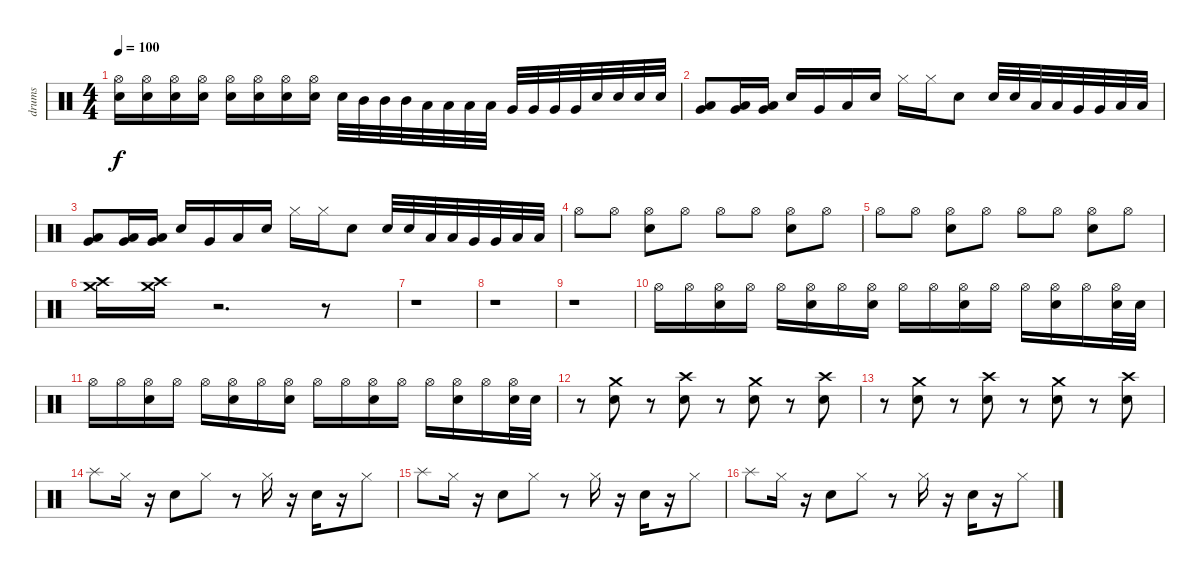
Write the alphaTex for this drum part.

\track ("drums" "drums") {instrument percussion}
\staff {score}
\articulation defaults
\ts (4 4)
\tempo 100
\clef neutral
\ks c
("Snare (hit) 2" "Hi-Hat (open)").16{dy f} ("Snare (hit) 2" "Hi-Hat (open)").16 ("Snare (hit) 2" "Hi-Hat (open)").16 ("Snare (hit) 2" "Hi-Hat (open)").16 ("Snare (hit) 2" "Hi-Hat (open)").16 ("Snare (hit) 2" "Hi-Hat (open)").16 ("Snare (hit) 2" "Hi-Hat (open)").16 ("Snare (hit) 2" "Hi-Hat (open)").16 "Snare (hit) 2".32 "Mid Tom (hit)".32 "Mid Tom (hit)".32 "Mid Tom (hit)".32 "Low Tom (hit)".32 "Low Tom (hit)".32 "Low Tom (hit)".32 "Low Tom (hit)".32 "Very Low Tom (hit)".32 "Very Low Tom (hit)".32 "Very Low Tom (hit)".32 "Very Low Tom (hit)".32 "Snare (hit) 2".32 "Snare (hit) 2".32 "Snare (hit) 2".32 "Snare (hit) 2".32 |
("Very Low Tom (hit)" "Low Floor Tom (hit)").8 ("Very Low Tom (hit)" "Low Floor Tom (hit)").16 ("Very Low Tom (hit)" "Low Floor Tom (hit)").16 "Snare (hit) 2".16 "Very Low Tom (hit)".16 "Low Floor Tom (hit)".16 "Snare (hit) 2".16 "Hi-Hat (closed)".16 "Hi-Hat (closed)".16 "Snare (hit) 2".8 "Snare (hit) 2".32 "Snare (hit) 2".32 "Low Tom (hit)".32 "Low Tom (hit)".32 "Very Low Tom (hit)".32 "Very Low Tom (hit)".32 "Low Floor Tom (hit)".32 "Low Floor Tom (hit)".32 |
("Very Low Tom (hit)" "Low Floor Tom (hit)").8 ("Very Low Tom (hit)" "Low Floor Tom (hit)").16 ("Very Low Tom (hit)" "Low Floor Tom (hit)").16 "Snare (hit) 2".16 "Very Low Tom (hit)".16 "Low Floor Tom (hit)".16 "Snare (hit) 2".16 "Hi-Hat (closed)".16 "Hi-Hat (closed)".16 "Snare (hit) 2".8 "Snare (hit) 2".32 "Snare (hit) 2".32 "Low Tom (hit)".32 "Low Tom (hit)".32 "Very Low Tom (hit)".32 "Very Low Tom (hit)".32 "Low Floor Tom (hit)".32 "Low Floor Tom (hit)".32 |
"Hi-Hat (open)".8 "Hi-Hat (open)".8 ("Snare (hit) 2" "Hi-Hat (open)").8 "Hi-Hat (open)".8 "Hi-Hat (open)".8 "Hi-Hat (open)".8 ("Snare (hit) 2" "Hi-Hat (open)").8 "Hi-Hat (open)".8 |
"Hi-Hat (open)".8 "Hi-Hat (open)".8 ("Snare (hit) 2" "Hi-Hat (open)").8 "Hi-Hat (open)".8 "Hi-Hat (open)".8 "Hi-Hat (open)".8 ("Snare (hit) 2" "Hi-Hat (open)").8 "Hi-Hat (open)".8 |
("Crash medium (hit)" "Crash high (hit)").16 ("Crash medium (hit)" "Crash high (hit)").16 r.2{d} r.8 |
r.1 |
r.1 |
r.1 |
"Hi-Hat (open)".16 "Hi-Hat (open)".16 ("Hi-Hat (open)" "Snare (hit) 2").16 "Hi-Hat (open)".16 "Hi-Hat (open)".16 ("Hi-Hat (open)" "Snare (hit) 2").16 "Hi-Hat (open)".16 ("Hi-Hat (open)" "Snare (hit) 2").16 "Hi-Hat (open)".16 "Hi-Hat (open)".16 ("Hi-Hat (open)" "Snare (hit) 2").16 "Hi-Hat (open)".16 "Hi-Hat (open)".16 ("Hi-Hat (open)" "Snare (hit) 2").16 "Hi-Hat (open)".16 ("Hi-Hat (open)" "Snare (hit) 2").32 "Snare (hit) 2".32 |
"Hi-Hat (open)".16 "Hi-Hat (open)".16 ("Hi-Hat (open)" "Snare (hit) 2").16 "Hi-Hat (open)".16 "Hi-Hat (open)".16 ("Hi-Hat (open)" "Snare (hit) 2").16 "Hi-Hat (open)".16 ("Hi-Hat (open)" "Snare (hit) 2").16 "Hi-Hat (open)".16 "Hi-Hat (open)".16 ("Hi-Hat (open)" "Snare (hit) 2").16 "Hi-Hat (open)".16 "Hi-Hat (open)".16 ("Hi-Hat (open)" "Snare (hit) 2").16 "Hi-Hat (open)".16 ("Hi-Hat (open)" "Snare (hit) 2").32 "Snare (hit) 2".32 |
r.8 ("Crash medium (hit)" "Snare (hit) 2").8 r.8 ("Crash high (hit)" "Snare (hit) 2").8 r.8 ("Crash medium (hit)" "Snare (hit) 2").8 r.8 ("Crash high (hit)" "Snare (hit) 2").8 |
r.8 ("Crash medium (hit)" "Snare (hit) 2").8 r.8 ("Crash high (hit)" "Snare (hit) 2").8 r.8 ("Crash medium (hit)" "Snare (hit) 2").8 r.8 ("Crash high (hit)" "Snare (hit) 2").8 |
"Splash (hit)".8 "Hi-Hat (closed)".16 r.16 "Snare (hit) 2".8 "Hi-Hat (closed)".8 r.8 "Hi-Hat (closed)".16 r.16 "Snare (hit) 2".16 r.16 "Hi-Hat (closed)".8 |
"Splash (hit)".8 "Hi-Hat (closed)".16 r.16 "Snare (hit) 2".8 "Hi-Hat (closed)".8 r.8 "Hi-Hat (closed)".16 r.16 "Snare (hit) 2".16 r.16 "Hi-Hat (closed)".8 |
"Splash (hit)".8 "Hi-Hat (closed)".16 r.16 "Snare (hit) 2".8 "Hi-Hat (closed)".8 r.8 "Hi-Hat (closed)".16 r.16 "Snare (hit) 2".16 r.16 "Hi-Hat (closed)".8
